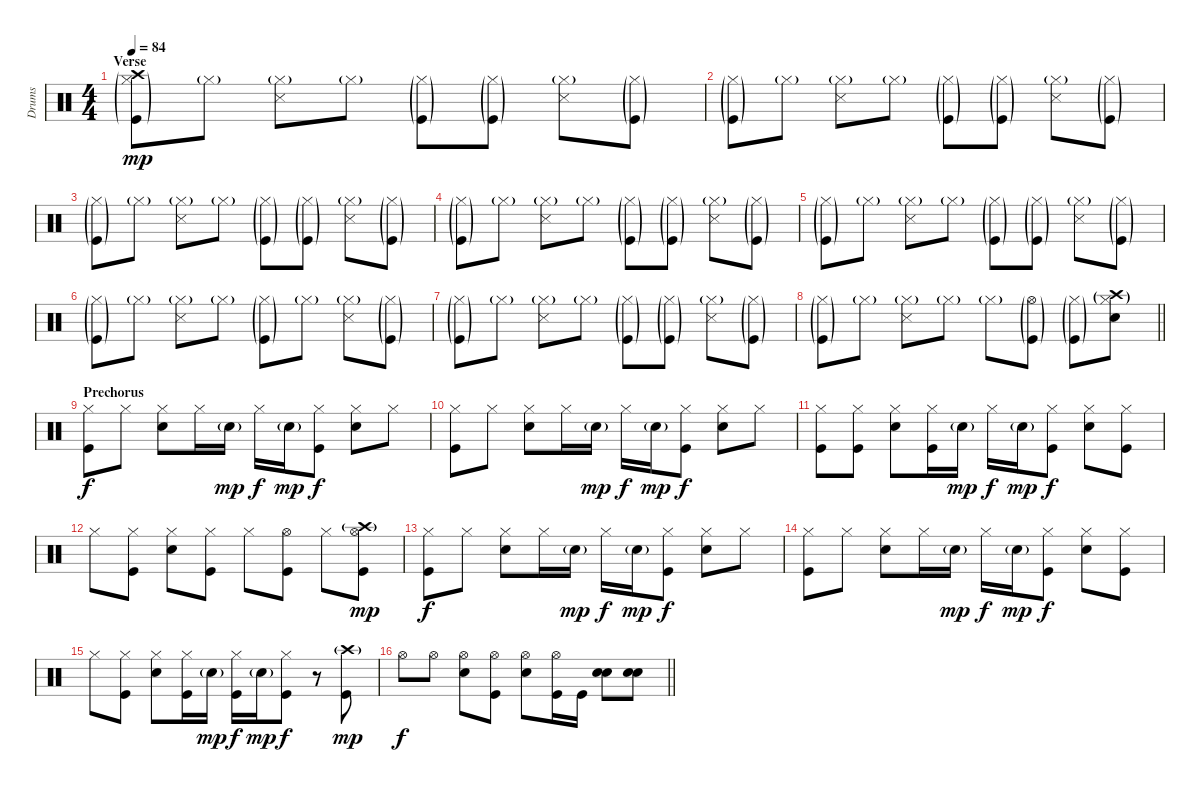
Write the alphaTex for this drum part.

\track ("Drums" "Drums") {instrument percussion}
\staff {score}
\articulation defaults
\ts (4 4)
\section ("" "Verse")
\tempo 84
\clef neutral
\ks c
("Hi-Hat (closed)"{g} "Crash high (hit)"{g} "Kick (hit)"{g}).8{dy mp} "Hi-Hat (closed)"{g}.8 ("Hi-Hat (closed)"{g} "Snare (side stick) 3").8 "Hi-Hat (closed)"{g}.8 ("Hi-Hat (closed)"{g} "Kick (hit)"{g}).8 ("Hi-Hat (closed)"{g} "Kick (hit)"{g}).8 ("Hi-Hat (closed)"{g} "Snare (side stick) 3").8 ("Hi-Hat (closed)"{g} "Kick (hit)"{g}).8 |
("Hi-Hat (closed)"{g} "Kick (hit)"{g}).8 "Hi-Hat (closed)"{g}.8 ("Hi-Hat (closed)"{g} "Snare (side stick) 3").8 "Hi-Hat (closed)"{g}.8 ("Hi-Hat (closed)"{g} "Kick (hit)"{g}).8 ("Hi-Hat (closed)"{g} "Kick (hit)"{g}).8 ("Hi-Hat (closed)"{g} "Snare (side stick) 3").8 ("Hi-Hat (closed)"{g} "Kick (hit)"{g}).8 |
("Hi-Hat (closed)"{g} "Kick (hit)"{g}).8 "Hi-Hat (closed)"{g}.8 ("Hi-Hat (closed)"{g} "Snare (side stick) 3").8 "Hi-Hat (closed)"{g}.8 ("Hi-Hat (closed)"{g} "Kick (hit)"{g}).8 ("Hi-Hat (closed)"{g} "Kick (hit)"{g}).8 ("Hi-Hat (closed)"{g} "Snare (side stick) 3").8 ("Hi-Hat (closed)"{g} "Kick (hit)"{g}).8 |
("Hi-Hat (closed)"{g} "Kick (hit)"{g}).8 "Hi-Hat (closed)"{g}.8 ("Hi-Hat (closed)"{g} "Snare (side stick) 3").8 "Hi-Hat (closed)"{g}.8 ("Hi-Hat (closed)"{g} "Kick (hit)"{g}).8 ("Hi-Hat (closed)"{g} "Kick (hit)"{g}).8 ("Hi-Hat (closed)"{g} "Snare (side stick) 3").8 ("Hi-Hat (closed)"{g} "Kick (hit)"{g}).8 |
("Hi-Hat (closed)"{g} "Kick (hit)"{g}).8 "Hi-Hat (closed)"{g}.8 ("Hi-Hat (closed)"{g} "Snare (side stick) 3").8 "Hi-Hat (closed)"{g}.8 ("Hi-Hat (closed)"{g} "Kick (hit)"{g}).8 ("Hi-Hat (closed)"{g} "Kick (hit)"{g}).8 ("Hi-Hat (closed)"{g} "Snare (side stick) 3").8 ("Hi-Hat (closed)"{g} "Kick (hit)"{g}).8 |
("Hi-Hat (closed)"{g} "Kick (hit)"{g}).8 "Hi-Hat (closed)"{g}.8 ("Hi-Hat (closed)"{g} "Snare (side stick) 3").8 "Hi-Hat (closed)"{g}.8 ("Hi-Hat (closed)"{g} "Kick (hit)"{g}).8 "Hi-Hat (closed)"{g}.8 ("Hi-Hat (closed)"{g} "Snare (side stick) 3").8 ("Hi-Hat (closed)"{g} "Kick (hit)"{g}).8 |
("Hi-Hat (closed)"{g} "Kick (hit)"{g}).8 "Hi-Hat (closed)"{g}.8 ("Hi-Hat (closed)"{g} "Snare (side stick) 3").8 "Hi-Hat (closed)"{g}.8 ("Hi-Hat (closed)"{g} "Kick (hit)"{g}).8 ("Hi-Hat (closed)"{g} "Kick (hit)"{g}).8 ("Hi-Hat (closed)"{g} "Snare (side stick) 3").8 ("Hi-Hat (closed)"{g} "Kick (hit)"{g}).8 |
\barLineRight lightlight
("Hi-Hat (closed)"{g} "Kick (hit)"{g}).8 "Hi-Hat (closed)"{g}.8 ("Hi-Hat (closed)"{g} "Snare (side stick) 3").8 "Hi-Hat (closed)"{g}.8 "Hi-Hat (closed)"{g}.8 ("Hi-Hat (open)"{g} "Kick (hit)"{g}).8 ("Hi-Hat (closed)"{g} "Kick (hit)"{g}).8 ("Hi-Hat (closed)"{g} "Crash high (hit)"{g} "Snare (hit) 2").8 |
\section ("" "Prechorus")
("Hi-Hat (closed)" "Kick (hit)").8{dy f} "Hi-Hat (closed)".8 ("Hi-Hat (closed)" "Snare (hit) 2").8 "Hi-Hat (closed)".16 "Snare (hit) 2"{g}.16{dy mp} "Hi-Hat (closed)".16{dy f} "Snare (hit) 2"{g}.16{dy mp} ("Hi-Hat (closed)" "Kick (hit)").8{dy f} ("Hi-Hat (closed)" "Snare (hit) 2").8 "Hi-Hat (closed)".8 |
("Hi-Hat (closed)" "Kick (hit)").8 "Hi-Hat (closed)".8 ("Hi-Hat (closed)" "Snare (hit) 2").8 "Hi-Hat (closed)".16 "Snare (hit) 2"{g}.16{dy mp} "Hi-Hat (closed)".16{dy f} "Snare (hit) 2"{g}.16{dy mp} ("Hi-Hat (closed)" "Kick (hit)").8{dy f} ("Hi-Hat (closed)" "Snare (hit) 2").8 "Hi-Hat (closed)".8 |
("Hi-Hat (closed)" "Kick (hit)").8 ("Hi-Hat (closed)" "Kick (hit)").8 ("Hi-Hat (closed)" "Snare (hit) 2").8 ("Hi-Hat (closed)" "Kick (hit)").16 "Snare (hit) 2"{g}.16{dy mp} "Hi-Hat (closed)".16{dy f} "Snare (hit) 2"{g}.16{dy mp} ("Hi-Hat (closed)" "Kick (hit)").8{dy f} ("Hi-Hat (closed)" "Snare (hit) 2").8 ("Hi-Hat (closed)" "Kick (hit)").8 |
"Hi-Hat (closed)".8 ("Hi-Hat (closed)" "Kick (hit)").8 ("Hi-Hat (closed)" "Snare (hit) 2").8 ("Hi-Hat (closed)" "Kick (hit)").8 "Hi-Hat (closed)".8 ("Hi-Hat (open)" "Kick (hit)").8 "Hi-Hat (closed)".8 ("Hi-Hat (open)" "Crash high (hit)"{g} "Kick (hit)").8{dy mp} |
("Hi-Hat (closed)" "Kick (hit)").8{dy f} "Hi-Hat (closed)".8 ("Hi-Hat (closed)" "Snare (hit) 2").8 "Hi-Hat (closed)".16 "Snare (hit) 2"{g}.16{dy mp} "Hi-Hat (closed)".16{dy f} "Snare (hit) 2"{g}.16{dy mp} ("Hi-Hat (closed)" "Kick (hit)").8{dy f} ("Hi-Hat (closed)" "Snare (hit) 2").8 "Hi-Hat (closed)".8 |
("Hi-Hat (closed)" "Kick (hit)").8 "Hi-Hat (closed)".8 ("Hi-Hat (closed)" "Snare (hit) 2").8 "Hi-Hat (closed)".16 "Snare (hit) 2"{g}.16{dy mp} "Hi-Hat (closed)".16{dy f} "Snare (hit) 2"{g}.16{dy mp} ("Hi-Hat (closed)" "Kick (hit)").8{dy f} ("Hi-Hat (closed)" "Snare (hit) 2").8 ("Hi-Hat (closed)" "Kick (hit)").8 |
"Hi-Hat (closed)".8 ("Hi-Hat (closed)" "Kick (hit)").8 ("Hi-Hat (closed)" "Snare (hit) 2").8 ("Hi-Hat (closed)" "Kick (hit)").16 "Snare (hit) 2"{g}.16{dy mp} ("Hi-Hat (closed)" "Kick (hit)").16{dy f} "Snare (hit) 2"{g}.16{dy mp} ("Hi-Hat (closed)" "Kick (hit)").8{dy f} r.8 ("Crash high (hit)"{g} "Kick (hit)").8{dy mp} |
\barLineRight lightlight "Hi-Hat (open)".8{dy f} "Hi-Hat (open)".8
("Hi-Hat (open)" "Snare (hit) 2").8 ("Hi-Hat (open)" "Kick (hit)").8 ("Hi-Hat (open)" "Snare (hit) 2").8 ("Hi-Hat (open)" "Kick (hit)").16 "Kick (hit)".16 ("Electric Snare (hit)" "Snare (hit) 2").8 ("Electric Snare (hit)" "Snare (hit) 2").8
